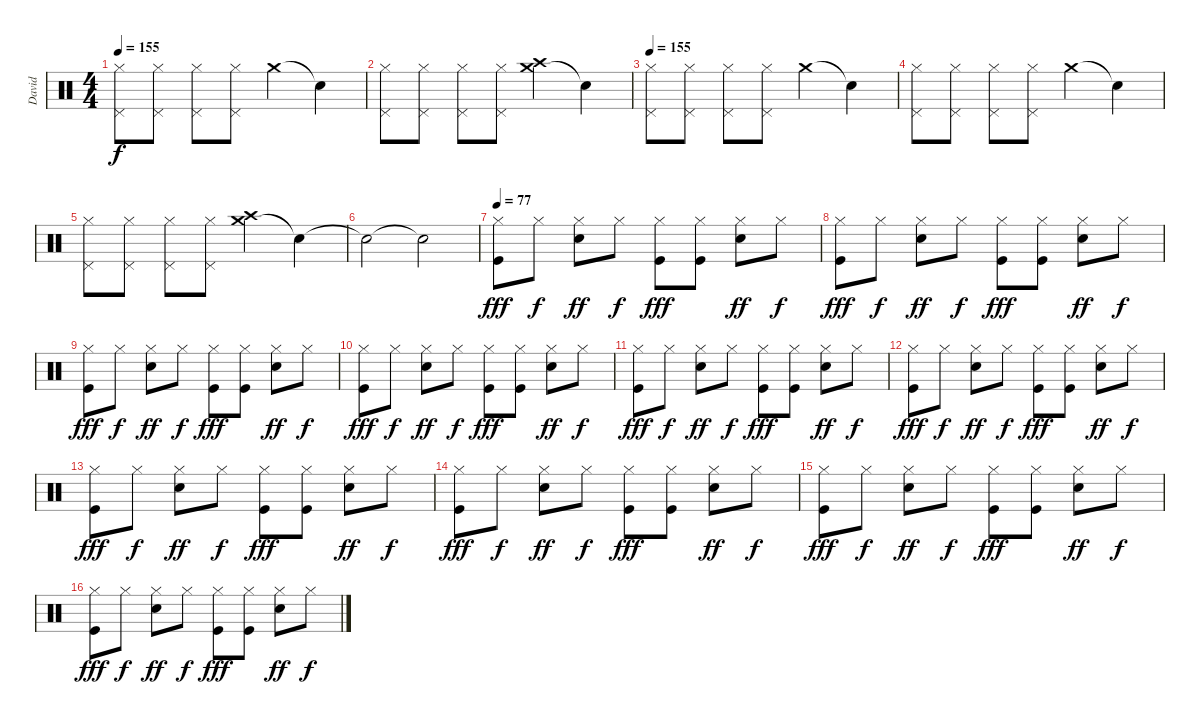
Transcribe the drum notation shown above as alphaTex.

\track ("David" "David") {instrument percussion}
\staff {score}
\articulation defaults
\ts (4 4)
\tempo 155
\clef neutral
\ks c
("Hi-Hat (closed)" "Pedal Hi-Hat (hit)").8{dy f} ("Hi-Hat (closed)" "Pedal Hi-Hat (hit)").8 ("Hi-Hat (closed)" "Pedal Hi-Hat (hit)").8 ("Hi-Hat (closed)" "Pedal Hi-Hat (hit)").8 "Crash medium (hit)".4 "Snare (hit)"{t}.4 |
("Hi-Hat (closed)" "Pedal Hi-Hat (hit)").8 ("Hi-Hat (closed)" "Pedal Hi-Hat (hit)").8 ("Hi-Hat (closed)" "Pedal Hi-Hat (hit)").8 ("Hi-Hat (closed)" "Pedal Hi-Hat (hit)").8 ("Crash medium (hit)" "Crash high (hit)").4 "Snare (hit)"{t}.4 |
\tempo 155
("Hi-Hat (closed)" "Pedal Hi-Hat (hit)").8 ("Hi-Hat (closed)" "Pedal Hi-Hat (hit)").8 ("Hi-Hat (closed)" "Pedal Hi-Hat (hit)").8 ("Hi-Hat (closed)" "Pedal Hi-Hat (hit)").8 "Crash medium (hit)".4 "Snare (hit)"{t}.4 |
("Hi-Hat (closed)" "Pedal Hi-Hat (hit)").8 ("Hi-Hat (closed)" "Pedal Hi-Hat (hit)").8 ("Hi-Hat (closed)" "Pedal Hi-Hat (hit)").8 ("Hi-Hat (closed)" "Pedal Hi-Hat (hit)").8 "Crash medium (hit)".4 "Snare (hit)"{t}.4 |
("Hi-Hat (closed)" "Pedal Hi-Hat (hit)").8 ("Hi-Hat (closed)" "Pedal Hi-Hat (hit)").8 ("Hi-Hat (closed)" "Pedal Hi-Hat (hit)").8 ("Hi-Hat (closed)" "Pedal Hi-Hat (hit)").8 ("Crash medium (hit)" "Crash high (hit)").4 "Snare (hit)"{t}.4 |
"Snare (hit)"{t}.2 "Snare (hit)"{t}.2 |
\tempo 77
("Hi-Hat (closed)" "Kick (hit)").8{dy fff} "Hi-Hat (closed)".8{dy f} ("Hi-Hat (closed)" "Electric Snare (hit)").8{dy ff} "Hi-Hat (closed)".8{dy f} ("Hi-Hat (closed)" "Kick (hit)").8{dy fff} ("Hi-Hat (closed)" "Kick (hit)").8 ("Hi-Hat (closed)" "Electric Snare (hit)").8{dy ff} "Hi-Hat (closed)".8{dy f} |
("Hi-Hat (closed)" "Kick (hit)").8{dy fff} "Hi-Hat (closed)".8{dy f} ("Hi-Hat (closed)" "Electric Snare (hit)").8{dy ff} "Hi-Hat (closed)".8{dy f} ("Hi-Hat (closed)" "Kick (hit)").8{dy fff} ("Hi-Hat (closed)" "Kick (hit)").8 ("Hi-Hat (closed)" "Electric Snare (hit)").8{dy ff} "Hi-Hat (closed)".8{dy f} |
("Hi-Hat (closed)" "Kick (hit)").8{dy fff} "Hi-Hat (closed)".8{dy f} ("Hi-Hat (closed)" "Electric Snare (hit)").8{dy ff} "Hi-Hat (closed)".8{dy f} ("Hi-Hat (closed)" "Kick (hit)").8{dy fff} ("Hi-Hat (closed)" "Kick (hit)").8 ("Hi-Hat (closed)" "Electric Snare (hit)").8{dy ff} "Hi-Hat (closed)".8{dy f} |
("Hi-Hat (closed)" "Kick (hit)").8{dy fff} "Hi-Hat (closed)".8{dy f} ("Hi-Hat (closed)" "Electric Snare (hit)").8{dy ff} "Hi-Hat (closed)".8{dy f} ("Hi-Hat (closed)" "Kick (hit)").8{dy fff} ("Hi-Hat (closed)" "Kick (hit)").8 ("Hi-Hat (closed)" "Electric Snare (hit)").8{dy ff} "Hi-Hat (closed)".8{dy f} |
("Hi-Hat (closed)" "Kick (hit)").8{dy fff} "Hi-Hat (closed)".8{dy f} ("Hi-Hat (closed)" "Electric Snare (hit)").8{dy ff} "Hi-Hat (closed)".8{dy f} ("Hi-Hat (closed)" "Kick (hit)").8{dy fff} ("Hi-Hat (closed)" "Kick (hit)").8 ("Hi-Hat (closed)" "Electric Snare (hit)").8{dy ff} "Hi-Hat (closed)".8{dy f} |
("Hi-Hat (closed)" "Kick (hit)").8{dy fff} "Hi-Hat (closed)".8{dy f} ("Hi-Hat (closed)" "Electric Snare (hit)").8{dy ff} "Hi-Hat (closed)".8{dy f} ("Hi-Hat (closed)" "Kick (hit)").8{dy fff} ("Hi-Hat (closed)" "Kick (hit)").8 ("Hi-Hat (closed)" "Electric Snare (hit)").8{dy ff} "Hi-Hat (closed)".8{dy f} |
("Hi-Hat (closed)" "Kick (hit)").8{dy fff} "Hi-Hat (closed)".8{dy f} ("Hi-Hat (closed)" "Electric Snare (hit)").8{dy ff} "Hi-Hat (closed)".8{dy f} ("Hi-Hat (closed)" "Kick (hit)").8{dy fff} ("Hi-Hat (closed)" "Kick (hit)").8 ("Hi-Hat (closed)" "Electric Snare (hit)").8{dy ff} "Hi-Hat (closed)".8{dy f} |
("Hi-Hat (closed)" "Kick (hit)").8{dy fff} "Hi-Hat (closed)".8{dy f} ("Hi-Hat (closed)" "Electric Snare (hit)").8{dy ff} "Hi-Hat (closed)".8{dy f} ("Hi-Hat (closed)" "Kick (hit)").8{dy fff} ("Hi-Hat (closed)" "Kick (hit)").8 ("Hi-Hat (closed)" "Electric Snare (hit)").8{dy ff} "Hi-Hat (closed)".8{dy f} |
("Hi-Hat (closed)" "Kick (hit)").8{dy fff} "Hi-Hat (closed)".8{dy f} ("Hi-Hat (closed)" "Electric Snare (hit)").8{dy ff} "Hi-Hat (closed)".8{dy f} ("Hi-Hat (closed)" "Kick (hit)").8{dy fff} ("Hi-Hat (closed)" "Kick (hit)").8 ("Hi-Hat (closed)" "Electric Snare (hit)").8{dy ff} "Hi-Hat (closed)".8{dy f} |
("Hi-Hat (closed)" "Kick (hit)").8{dy fff} "Hi-Hat (closed)".8{dy f} ("Hi-Hat (closed)" "Electric Snare (hit)").8{dy ff} "Hi-Hat (closed)".8{dy f} ("Hi-Hat (closed)" "Kick (hit)").8{dy fff} ("Hi-Hat (closed)" "Kick (hit)").8 ("Hi-Hat (closed)" "Electric Snare (hit)").8{dy ff} "Hi-Hat (closed)".8{dy f}
